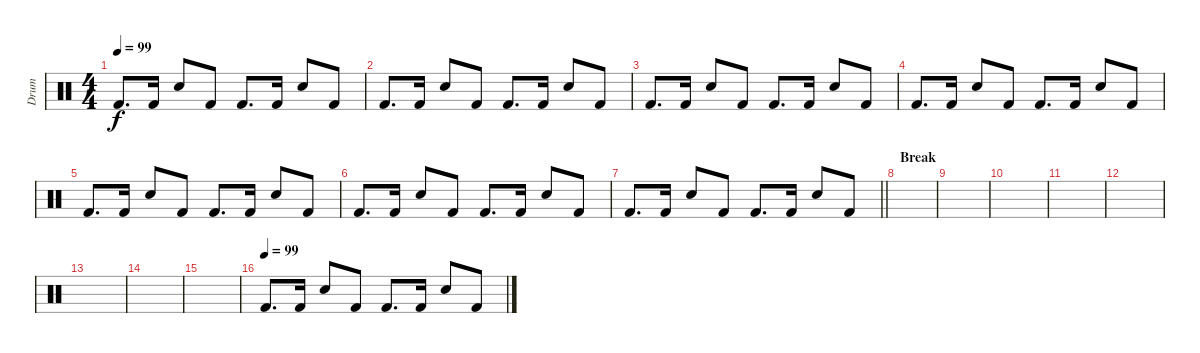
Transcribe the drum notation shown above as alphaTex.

\track ("Drum" "Drum") {instrument percussion}
\staff {score}
\articulation defaults
\ts (4 4)
\tempo 99
\clef neutral
\ks c "Kick (hit) 2".8{d dy f} "Kick (hit) 2".16 "Electric Snare (hit)".8 "Kick (hit) 2".8 "Kick (hit) 2".8{d} "Kick (hit) 2".16 "Electric Snare (hit)".8 "Kick (hit) 2".8
|
"Kick (hit) 2".8{d} "Kick (hit) 2".16 "Electric Snare (hit)".8 "Kick (hit) 2".8 "Kick (hit) 2".8{d} "Kick (hit) 2".16 "Electric Snare (hit)".8 "Kick (hit) 2".8 |
"Kick (hit) 2".8{d} "Kick (hit) 2".16 "Electric Snare (hit)".8 "Kick (hit) 2".8 "Kick (hit) 2".8{d} "Kick (hit) 2".16 "Electric Snare (hit)".8 "Kick (hit) 2".8 |
"Kick (hit) 2".8{d} "Kick (hit) 2".16 "Electric Snare (hit)".8 "Kick (hit) 2".8 "Kick (hit) 2".8{d} "Kick (hit) 2".16 "Electric Snare (hit)".8 "Kick (hit) 2".8 |
"Kick (hit) 2".8{d} "Kick (hit) 2".16 "Electric Snare (hit)".8 "Kick (hit) 2".8 "Kick (hit) 2".8{d} "Kick (hit) 2".16 "Electric Snare (hit)".8 "Kick (hit) 2".8 |
"Kick (hit) 2".8{d} "Kick (hit) 2".16 "Electric Snare (hit)".8 "Kick (hit) 2".8 "Kick (hit) 2".8{d} "Kick (hit) 2".16 "Electric Snare (hit)".8 "Kick (hit) 2".8 |
\barLineRight lightlight "Kick (hit) 2".8{d} "Kick (hit) 2".16 "Electric Snare (hit)".8 "Kick (hit) 2".8 "Kick (hit) 2".8{d} "Kick (hit) 2".16 "Electric Snare (hit)".8 "Kick (hit) 2".8
|
\section ("" "Break")
|
|
|
|
|
|
|
|
\tempo (99)
"Kick (hit) 2".8{d} "Kick (hit) 2".16 "Electric Snare (hit)".8 "Kick (hit) 2".8 "Kick (hit) 2".8{d} "Kick (hit) 2".16 "Electric Snare (hit)".8 "Kick (hit) 2".8
